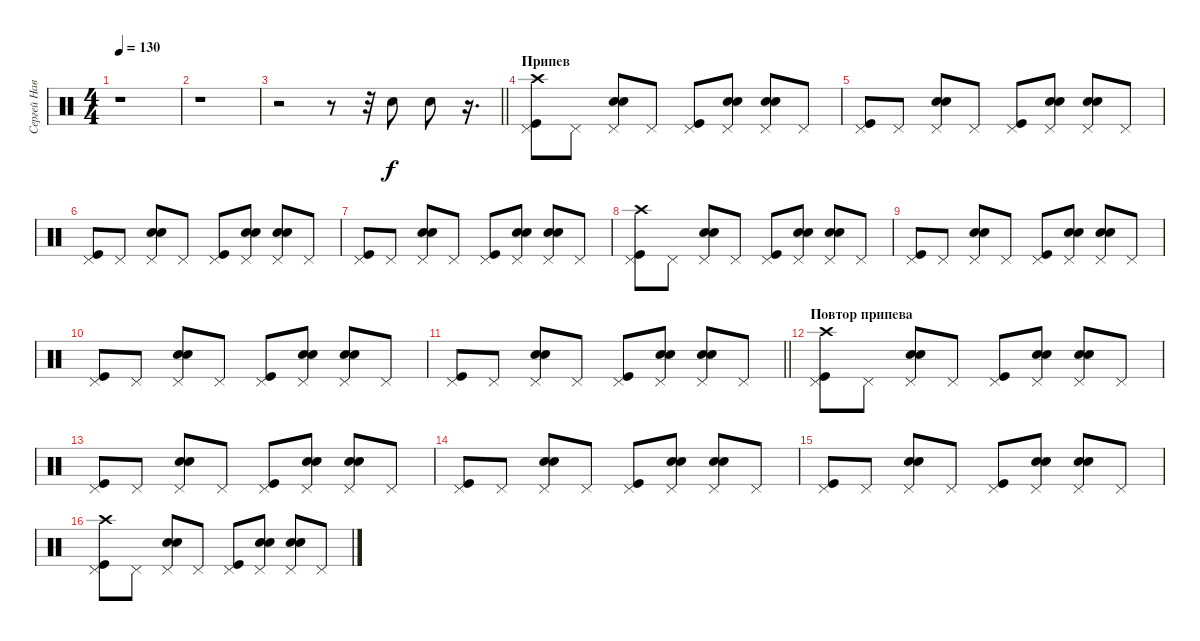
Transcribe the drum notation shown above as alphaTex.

\track ("Сергей Наветный (ударные)" "Сергей Нав") {instrument percussion}
\staff {score}
\articulation defaults
\ts (4 4)
\tempo 130
\clef neutral
\ks c
r.1{dy f} |
r.1 |
\barLineRight lightlight
r.2 r.8 r.32 "Snare (hit) 2".8 "Snare (hit) 2".8 r.16{d} |
\section ("" "Припев")
("Crash high (hit)" "Kick (hit)" "Pedal Hi-Hat (hit)").8 "Pedal Hi-Hat (hit)".8 ("Hand Clap (hit)" "Snare (hit) 2" "Pedal Hi-Hat (hit)").8 "Pedal Hi-Hat (hit)".8 ("Kick (hit)" "Pedal Hi-Hat (hit)").8 ("Hand Clap (hit)" "Snare (hit) 2" "Pedal Hi-Hat (hit)").8 ("Hand Clap (hit)" "Snare (hit) 2" "Pedal Hi-Hat (hit)").8 "Pedal Hi-Hat (hit)".8 |
("Kick (hit)" "Pedal Hi-Hat (hit)").8 "Pedal Hi-Hat (hit)".8 ("Hand Clap (hit)" "Snare (hit) 2" "Pedal Hi-Hat (hit)").8 "Pedal Hi-Hat (hit)".8 ("Kick (hit)" "Pedal Hi-Hat (hit)").8 ("Hand Clap (hit)" "Snare (hit) 2" "Pedal Hi-Hat (hit)").8 ("Hand Clap (hit)" "Snare (hit) 2" "Pedal Hi-Hat (hit)").8 "Pedal Hi-Hat (hit)".8 |
("Kick (hit)" "Pedal Hi-Hat (hit)").8 "Pedal Hi-Hat (hit)".8 ("Hand Clap (hit)" "Snare (hit) 2" "Pedal Hi-Hat (hit)").8 "Pedal Hi-Hat (hit)".8 ("Kick (hit)" "Pedal Hi-Hat (hit)").8 ("Hand Clap (hit)" "Snare (hit) 2" "Pedal Hi-Hat (hit)").8 ("Hand Clap (hit)" "Snare (hit) 2" "Pedal Hi-Hat (hit)").8 "Pedal Hi-Hat (hit)".8 |
("Kick (hit)" "Pedal Hi-Hat (hit)").8 "Pedal Hi-Hat (hit)".8 ("Hand Clap (hit)" "Snare (hit) 2" "Pedal Hi-Hat (hit)").8 "Pedal Hi-Hat (hit)".8 ("Kick (hit)" "Pedal Hi-Hat (hit)").8 ("Hand Clap (hit)" "Snare (hit) 2" "Pedal Hi-Hat (hit)").8 ("Hand Clap (hit)" "Snare (hit) 2" "Pedal Hi-Hat (hit)").8 "Pedal Hi-Hat (hit)".8 |
("Crash high (hit)" "Kick (hit)" "Pedal Hi-Hat (hit)").8 "Pedal Hi-Hat (hit)".8 ("Hand Clap (hit)" "Snare (hit) 2" "Pedal Hi-Hat (hit)").8 "Pedal Hi-Hat (hit)".8 ("Kick (hit)" "Pedal Hi-Hat (hit)").8 ("Hand Clap (hit)" "Snare (hit) 2" "Pedal Hi-Hat (hit)").8 ("Hand Clap (hit)" "Snare (hit) 2" "Pedal Hi-Hat (hit)").8 "Pedal Hi-Hat (hit)".8 |
("Kick (hit)" "Pedal Hi-Hat (hit)").8 "Pedal Hi-Hat (hit)".8 ("Hand Clap (hit)" "Snare (hit) 2" "Pedal Hi-Hat (hit)").8 "Pedal Hi-Hat (hit)".8 ("Kick (hit)" "Pedal Hi-Hat (hit)").8 ("Hand Clap (hit)" "Snare (hit) 2" "Pedal Hi-Hat (hit)").8 ("Hand Clap (hit)" "Snare (hit) 2" "Pedal Hi-Hat (hit)").8 "Pedal Hi-Hat (hit)".8 |
("Kick (hit)" "Pedal Hi-Hat (hit)").8 "Pedal Hi-Hat (hit)".8 ("Hand Clap (hit)" "Snare (hit) 2" "Pedal Hi-Hat (hit)").8 "Pedal Hi-Hat (hit)".8 ("Kick (hit)" "Pedal Hi-Hat (hit)").8 ("Hand Clap (hit)" "Snare (hit) 2" "Pedal Hi-Hat (hit)").8 ("Hand Clap (hit)" "Snare (hit) 2" "Pedal Hi-Hat (hit)").8 "Pedal Hi-Hat (hit)".8 |
\barLineRight lightlight
("Kick (hit)" "Pedal Hi-Hat (hit)").8 "Pedal Hi-Hat (hit)".8 ("Hand Clap (hit)" "Snare (hit) 2" "Pedal Hi-Hat (hit)").8 "Pedal Hi-Hat (hit)".8 ("Kick (hit)" "Pedal Hi-Hat (hit)").8 ("Hand Clap (hit)" "Snare (hit) 2" "Pedal Hi-Hat (hit)").8 ("Hand Clap (hit)" "Snare (hit) 2" "Pedal Hi-Hat (hit)").8 "Pedal Hi-Hat (hit)".8 |
\section ("" "Повтор припева")
("Crash high (hit)" "Kick (hit)" "Pedal Hi-Hat (hit)").8 "Pedal Hi-Hat (hit)".8 ("Hand Clap (hit)" "Snare (hit) 2" "Pedal Hi-Hat (hit)").8 "Pedal Hi-Hat (hit)".8 ("Kick (hit)" "Pedal Hi-Hat (hit)").8 ("Hand Clap (hit)" "Snare (hit) 2" "Pedal Hi-Hat (hit)").8 ("Hand Clap (hit)" "Snare (hit) 2" "Pedal Hi-Hat (hit)").8 "Pedal Hi-Hat (hit)".8 |
("Kick (hit)" "Pedal Hi-Hat (hit)").8 "Pedal Hi-Hat (hit)".8 ("Hand Clap (hit)" "Snare (hit) 2" "Pedal Hi-Hat (hit)").8 "Pedal Hi-Hat (hit)".8 ("Kick (hit)" "Pedal Hi-Hat (hit)").8 ("Hand Clap (hit)" "Snare (hit) 2" "Pedal Hi-Hat (hit)").8 ("Hand Clap (hit)" "Snare (hit) 2" "Pedal Hi-Hat (hit)").8 "Pedal Hi-Hat (hit)".8 |
("Kick (hit)" "Pedal Hi-Hat (hit)").8 "Pedal Hi-Hat (hit)".8 ("Hand Clap (hit)" "Snare (hit) 2" "Pedal Hi-Hat (hit)").8 "Pedal Hi-Hat (hit)".8 ("Kick (hit)" "Pedal Hi-Hat (hit)").8 ("Hand Clap (hit)" "Snare (hit) 2" "Pedal Hi-Hat (hit)").8 ("Hand Clap (hit)" "Snare (hit) 2" "Pedal Hi-Hat (hit)").8 "Pedal Hi-Hat (hit)".8 |
("Kick (hit)" "Pedal Hi-Hat (hit)").8 "Pedal Hi-Hat (hit)".8 ("Hand Clap (hit)" "Snare (hit) 2" "Pedal Hi-Hat (hit)").8 "Pedal Hi-Hat (hit)".8 ("Kick (hit)" "Pedal Hi-Hat (hit)").8 ("Hand Clap (hit)" "Snare (hit) 2" "Pedal Hi-Hat (hit)").8 ("Hand Clap (hit)" "Snare (hit) 2" "Pedal Hi-Hat (hit)").8 "Pedal Hi-Hat (hit)".8 |
("Crash high (hit)" "Kick (hit)" "Pedal Hi-Hat (hit)").8 "Pedal Hi-Hat (hit)".8 ("Hand Clap (hit)" "Snare (hit) 2" "Pedal Hi-Hat (hit)").8 "Pedal Hi-Hat (hit)".8 ("Kick (hit)" "Pedal Hi-Hat (hit)").8 ("Hand Clap (hit)" "Snare (hit) 2" "Pedal Hi-Hat (hit)").8 ("Hand Clap (hit)" "Snare (hit) 2" "Pedal Hi-Hat (hit)").8 "Pedal Hi-Hat (hit)".8
